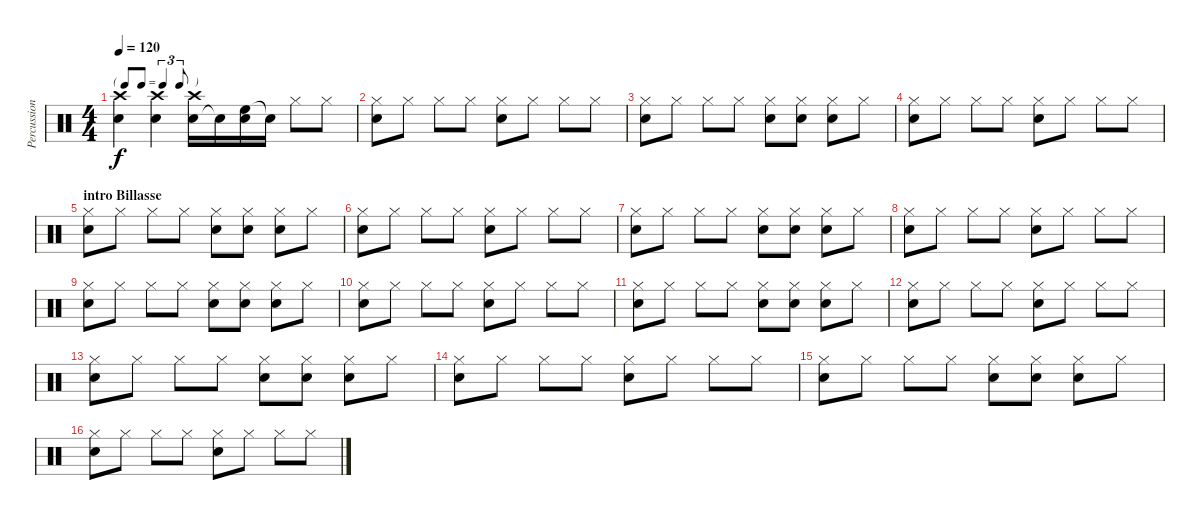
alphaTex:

\track ("Percussions" "Percussion") {instrument percussion}
\staff {score}
\articulation defaults
\ts (4 4)
\tf triplet8th
\tempo 120
\clef neutral
\ks c
("Electric Snare (hit)" "Crash high (hit)").4{dy f} ("Electric Snare (hit)" "Crash high (hit)").4 ("Electric Snare (hit)" "Crash high (hit)").16 "Snare (hit)"{t}.16 ("High Floor Tom (hit)" "Electric Snare (hit)").16 "Snare (hit)"{t}.16 "Hi-Hat (closed)".8 "Hi-Hat (closed)".8 |
("Electric Snare (hit)" "Hi-Hat (closed)").8 "Hi-Hat (closed)".8 "Hi-Hat (closed)".8 "Hi-Hat (closed)".8 ("Electric Snare (hit)" "Hi-Hat (closed)").8 "Hi-Hat (closed)".8 "Hi-Hat (closed)".8 "Hi-Hat (closed)".8 |
("Electric Snare (hit)" "Hi-Hat (closed)").8 "Hi-Hat (closed)".8 "Hi-Hat (closed)".8 "Hi-Hat (closed)".8 ("Electric Snare (hit)" "Hi-Hat (closed)").8 ("Electric Snare (hit)" "Hi-Hat (closed)").8 ("Electric Snare (hit)" "Hi-Hat (closed)").8 "Hi-Hat (closed)".8 |
("Electric Snare (hit)" "Hi-Hat (closed)").8 "Hi-Hat (closed)".8 "Hi-Hat (closed)".8 "Hi-Hat (closed)".8 ("Electric Snare (hit)" "Hi-Hat (closed)").8 "Hi-Hat (closed)".8 "Hi-Hat (closed)".8 "Hi-Hat (closed)".8 |
\section ("" "intro Billasse")
("Electric Snare (hit)" "Hi-Hat (closed)").8 "Hi-Hat (closed)".8 "Hi-Hat (closed)".8 "Hi-Hat (closed)".8 ("Electric Snare (hit)" "Hi-Hat (closed)").8 ("Electric Snare (hit)" "Hi-Hat (closed)").8 ("Electric Snare (hit)" "Hi-Hat (closed)").8 "Hi-Hat (closed)".8 |
("Electric Snare (hit)" "Hi-Hat (closed)").8 "Hi-Hat (closed)".8 "Hi-Hat (closed)".8 "Hi-Hat (closed)".8 ("Electric Snare (hit)" "Hi-Hat (closed)").8 "Hi-Hat (closed)".8 "Hi-Hat (closed)".8 "Hi-Hat (closed)".8 |
("Electric Snare (hit)" "Hi-Hat (closed)").8 "Hi-Hat (closed)".8 "Hi-Hat (closed)".8 "Hi-Hat (closed)".8 ("Electric Snare (hit)" "Hi-Hat (closed)").8 ("Electric Snare (hit)" "Hi-Hat (closed)").8 ("Electric Snare (hit)" "Hi-Hat (closed)").8 "Hi-Hat (closed)".8 |
("Electric Snare (hit)" "Hi-Hat (closed)").8 "Hi-Hat (closed)".8 "Hi-Hat (closed)".8 "Hi-Hat (closed)".8 ("Electric Snare (hit)" "Hi-Hat (closed)").8 "Hi-Hat (closed)".8 "Hi-Hat (closed)".8 "Hi-Hat (closed)".8 |
("Electric Snare (hit)" "Hi-Hat (closed)").8 "Hi-Hat (closed)".8 "Hi-Hat (closed)".8 "Hi-Hat (closed)".8 ("Electric Snare (hit)" "Hi-Hat (closed)").8 ("Electric Snare (hit)" "Hi-Hat (closed)").8 ("Electric Snare (hit)" "Hi-Hat (closed)").8 "Hi-Hat (closed)".8 |
("Electric Snare (hit)" "Hi-Hat (closed)").8 "Hi-Hat (closed)".8 "Hi-Hat (closed)".8 "Hi-Hat (closed)".8 ("Electric Snare (hit)" "Hi-Hat (closed)").8 "Hi-Hat (closed)".8 "Hi-Hat (closed)".8 "Hi-Hat (closed)".8 |
("Electric Snare (hit)" "Hi-Hat (closed)").8 "Hi-Hat (closed)".8 "Hi-Hat (closed)".8 "Hi-Hat (closed)".8 ("Electric Snare (hit)" "Hi-Hat (closed)").8 ("Electric Snare (hit)" "Hi-Hat (closed)").8 ("Electric Snare (hit)" "Hi-Hat (closed)").8 "Hi-Hat (closed)".8 |
("Electric Snare (hit)" "Hi-Hat (closed)").8 "Hi-Hat (closed)".8 "Hi-Hat (closed)".8 "Hi-Hat (closed)".8 ("Electric Snare (hit)" "Hi-Hat (closed)").8 "Hi-Hat (closed)".8 "Hi-Hat (closed)".8 "Hi-Hat (closed)".8 |
("Electric Snare (hit)" "Hi-Hat (closed)").8 "Hi-Hat (closed)".8 "Hi-Hat (closed)".8 "Hi-Hat (closed)".8 ("Electric Snare (hit)" "Hi-Hat (closed)").8 ("Electric Snare (hit)" "Hi-Hat (closed)").8 ("Electric Snare (hit)" "Hi-Hat (closed)").8 "Hi-Hat (closed)".8 |
("Electric Snare (hit)" "Hi-Hat (closed)").8 "Hi-Hat (closed)".8 "Hi-Hat (closed)".8 "Hi-Hat (closed)".8 ("Electric Snare (hit)" "Hi-Hat (closed)").8 "Hi-Hat (closed)".8 "Hi-Hat (closed)".8 "Hi-Hat (closed)".8 |
("Electric Snare (hit)" "Hi-Hat (closed)").8 "Hi-Hat (closed)".8 "Hi-Hat (closed)".8 "Hi-Hat (closed)".8 ("Electric Snare (hit)" "Hi-Hat (closed)").8 ("Electric Snare (hit)" "Hi-Hat (closed)").8 ("Electric Snare (hit)" "Hi-Hat (closed)").8 "Hi-Hat (closed)".8 |
("Electric Snare (hit)" "Hi-Hat (closed)").8 "Hi-Hat (closed)".8 "Hi-Hat (closed)".8 "Hi-Hat (closed)".8 ("Electric Snare (hit)" "Hi-Hat (closed)").8 "Hi-Hat (closed)".8 "Hi-Hat (closed)".8 "Hi-Hat (closed)".8
